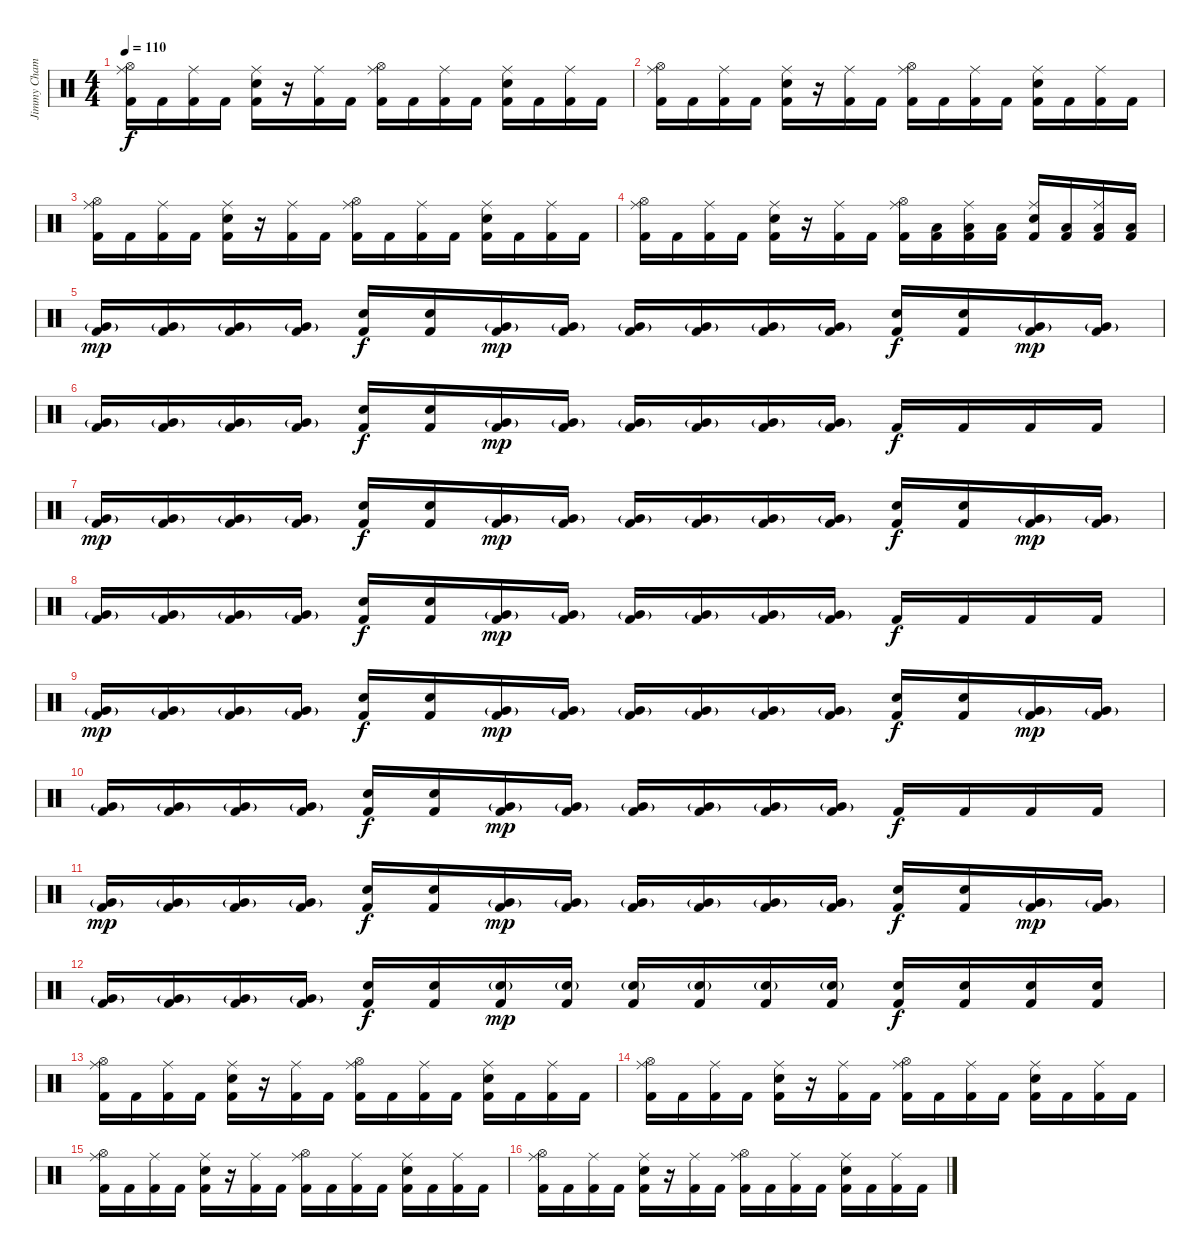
\track ("Jimmy Chamberlin" "Jimmy Cham") {instrument percussion}
\staff {score}
\articulation defaults
\ts (4 4)
\tempo 110
\clef neutral
\ks c
("Kick (hit) 2" "Hi-Hat (open)" "Ride (middle)").16{dy f} "Kick (hit) 2".16 ("Kick (hit) 2" "Ride (middle)").16 "Kick (hit) 2".16 ("Kick (hit) 2" "Snare (hit) 2" "Ride (middle)").16 r.16 ("Kick (hit) 2" "Ride (middle)").16 "Kick (hit) 2".16 ("Kick (hit) 2" "Hi-Hat (open)" "Ride (middle)").16 "Kick (hit) 2".16 ("Kick (hit) 2" "Ride (middle)").16 "Kick (hit) 2".16 ("Kick (hit) 2" "Snare (hit) 2" "Ride (middle)").16 "Kick (hit) 2".16 ("Kick (hit) 2" "Ride (middle)").16 "Kick (hit) 2".16 |
("Kick (hit) 2" "Hi-Hat (open)" "Ride (middle)").16 "Kick (hit) 2".16 ("Kick (hit) 2" "Ride (middle)").16 "Kick (hit) 2".16 ("Kick (hit) 2" "Snare (hit) 2" "Ride (middle)").16 r.16 ("Kick (hit) 2" "Ride (middle)").16 "Kick (hit) 2".16 ("Kick (hit) 2" "Hi-Hat (open)" "Ride (middle)").16 "Kick (hit) 2".16 ("Kick (hit) 2" "Ride (middle)").16 "Kick (hit) 2".16 ("Kick (hit) 2" "Snare (hit) 2" "Ride (middle)").16 "Kick (hit) 2".16 ("Kick (hit) 2" "Ride (middle)").16 "Kick (hit) 2".16 |
("Kick (hit) 2" "Hi-Hat (open)" "Ride (middle)").16 "Kick (hit) 2".16 ("Kick (hit) 2" "Ride (middle)").16 "Kick (hit) 2".16 ("Kick (hit) 2" "Snare (hit) 2" "Ride (middle)").16 r.16 ("Kick (hit) 2" "Ride (middle)").16 "Kick (hit) 2".16 ("Kick (hit) 2" "Hi-Hat (open)" "Ride (middle)").16 "Kick (hit) 2".16 ("Kick (hit) 2" "Ride (middle)").16 "Kick (hit) 2".16 ("Kick (hit) 2" "Snare (hit) 2" "Ride (middle)").16 "Kick (hit) 2".16 ("Kick (hit) 2" "Ride (middle)").16 "Kick (hit) 2".16 |
("Kick (hit) 2" "Hi-Hat (open)" "Ride (middle)").16 "Kick (hit) 2".16 ("Kick (hit) 2" "Ride (middle)").16 "Kick (hit) 2".16 ("Kick (hit) 2" "Snare (hit) 2" "Ride (middle)").16 r.16 ("Kick (hit) 2" "Ride (middle)").16 "Kick (hit) 2".16 ("Kick (hit) 2" "Hi-Hat (open)" "Ride (middle)").16 ("Kick (hit) 2" "Low Floor Tom (hit)").16 ("Kick (hit) 2" "Low Floor Tom (hit)" "Ride (middle)").16 ("Kick (hit) 2" "Low Floor Tom (hit)").16 ("Kick (hit) 2" "Snare (hit) 2" "Ride (middle)").16 ("Kick (hit) 2" "Low Floor Tom (hit)").16 ("Kick (hit) 2" "Low Floor Tom (hit)" "Ride (middle)").16 ("Kick (hit) 2" "Low Floor Tom (hit)").16 |
("Kick (hit) 2" "Very Low Tom (hit)"{g}).16{dy mp} ("Kick (hit) 2" "Very Low Tom (hit)"{g}).16 ("Kick (hit) 2" "Very Low Tom (hit)"{g}).16 ("Kick (hit) 2" "Very Low Tom (hit)"{g}).16 ("Kick (hit) 2" "Snare (hit) 2").16{dy f} ("Kick (hit) 2" "Snare (hit) 2").16 ("Kick (hit) 2" "Very Low Tom (hit)"{g}).16{dy mp} ("Kick (hit) 2" "Very Low Tom (hit)"{g}).16 ("Kick (hit) 2" "Very Low Tom (hit)"{g}).16 ("Kick (hit) 2" "Very Low Tom (hit)"{g}).16 ("Kick (hit) 2" "Very Low Tom (hit)"{g}).16 ("Kick (hit) 2" "Very Low Tom (hit)"{g}).16 ("Kick (hit) 2" "Snare (hit) 2").16{dy f} ("Kick (hit) 2" "Snare (hit) 2").16 ("Kick (hit) 2" "Very Low Tom (hit)"{g}).16{dy mp} ("Kick (hit) 2" "Very Low Tom (hit)"{g}).16 |
("Kick (hit) 2" "Very Low Tom (hit)"{g}).16 ("Kick (hit) 2" "Very Low Tom (hit)"{g}).16 ("Kick (hit) 2" "Very Low Tom (hit)"{g}).16 ("Kick (hit) 2" "Very Low Tom (hit)"{g}).16 ("Kick (hit) 2" "Snare (hit) 2").16{dy f} ("Kick (hit) 2" "Snare (hit) 2").16 ("Kick (hit) 2" "Very Low Tom (hit)"{g}).16{dy mp} ("Kick (hit) 2" "Very Low Tom (hit)"{g}).16 ("Kick (hit) 2" "Very Low Tom (hit)"{g}).16 ("Kick (hit) 2" "Very Low Tom (hit)"{g}).16 ("Kick (hit) 2" "Very Low Tom (hit)"{g}).16 ("Kick (hit) 2" "Very Low Tom (hit)"{g}).16 "Kick (hit) 2".16{dy f} "Kick (hit) 2".16 "Kick (hit) 2".16 "Kick (hit) 2".16 |
("Kick (hit) 2" "Very Low Tom (hit)"{g}).16{dy mp} ("Kick (hit) 2" "Very Low Tom (hit)"{g}).16 ("Kick (hit) 2" "Very Low Tom (hit)"{g}).16 ("Kick (hit) 2" "Very Low Tom (hit)"{g}).16 ("Kick (hit) 2" "Snare (hit) 2").16{dy f} ("Kick (hit) 2" "Snare (hit) 2").16 ("Kick (hit) 2" "Very Low Tom (hit)"{g}).16{dy mp} ("Kick (hit) 2" "Very Low Tom (hit)"{g}).16 ("Kick (hit) 2" "Very Low Tom (hit)"{g}).16 ("Kick (hit) 2" "Very Low Tom (hit)"{g}).16 ("Kick (hit) 2" "Very Low Tom (hit)"{g}).16 ("Kick (hit) 2" "Very Low Tom (hit)"{g}).16 ("Kick (hit) 2" "Snare (hit) 2").16{dy f} ("Kick (hit) 2" "Snare (hit) 2").16 ("Kick (hit) 2" "Very Low Tom (hit)"{g}).16{dy mp} ("Kick (hit) 2" "Very Low Tom (hit)"{g}).16 |
("Kick (hit) 2" "Very Low Tom (hit)"{g}).16 ("Kick (hit) 2" "Very Low Tom (hit)"{g}).16 ("Kick (hit) 2" "Very Low Tom (hit)"{g}).16 ("Kick (hit) 2" "Very Low Tom (hit)"{g}).16 ("Kick (hit) 2" "Snare (hit) 2").16{dy f} ("Kick (hit) 2" "Snare (hit) 2").16 ("Kick (hit) 2" "Very Low Tom (hit)"{g}).16{dy mp} ("Kick (hit) 2" "Very Low Tom (hit)"{g}).16 ("Kick (hit) 2" "Very Low Tom (hit)"{g}).16 ("Kick (hit) 2" "Very Low Tom (hit)"{g}).16 ("Kick (hit) 2" "Very Low Tom (hit)"{g}).16 ("Kick (hit) 2" "Very Low Tom (hit)"{g}).16 "Kick (hit) 2".16{dy f} "Kick (hit) 2".16 "Kick (hit) 2".16 "Kick (hit) 2".16 |
("Kick (hit) 2" "Very Low Tom (hit)"{g}).16{dy mp} ("Kick (hit) 2" "Very Low Tom (hit)"{g}).16 ("Kick (hit) 2" "Very Low Tom (hit)"{g}).16 ("Kick (hit) 2" "Very Low Tom (hit)"{g}).16 ("Kick (hit) 2" "Snare (hit) 2").16{dy f} ("Kick (hit) 2" "Snare (hit) 2").16 ("Kick (hit) 2" "Very Low Tom (hit)"{g}).16{dy mp} ("Kick (hit) 2" "Very Low Tom (hit)"{g}).16 ("Kick (hit) 2" "Very Low Tom (hit)"{g}).16 ("Kick (hit) 2" "Very Low Tom (hit)"{g}).16 ("Kick (hit) 2" "Very Low Tom (hit)"{g}).16 ("Kick (hit) 2" "Very Low Tom (hit)"{g}).16 ("Kick (hit) 2" "Snare (hit) 2").16{dy f} ("Kick (hit) 2" "Snare (hit) 2").16 ("Kick (hit) 2" "Very Low Tom (hit)"{g}).16{dy mp} ("Kick (hit) 2" "Very Low Tom (hit)"{g}).16 |
("Kick (hit) 2" "Very Low Tom (hit)"{g}).16 ("Kick (hit) 2" "Very Low Tom (hit)"{g}).16 ("Kick (hit) 2" "Very Low Tom (hit)"{g}).16 ("Kick (hit) 2" "Very Low Tom (hit)"{g}).16 ("Kick (hit) 2" "Snare (hit) 2").16{dy f} ("Kick (hit) 2" "Snare (hit) 2").16 ("Kick (hit) 2" "Very Low Tom (hit)"{g}).16{dy mp} ("Kick (hit) 2" "Very Low Tom (hit)"{g}).16 ("Kick (hit) 2" "Very Low Tom (hit)"{g}).16 ("Kick (hit) 2" "Very Low Tom (hit)"{g}).16 ("Kick (hit) 2" "Very Low Tom (hit)"{g}).16 ("Kick (hit) 2" "Very Low Tom (hit)"{g}).16 "Kick (hit) 2".16{dy f} "Kick (hit) 2".16 "Kick (hit) 2".16 "Kick (hit) 2".16 |
("Kick (hit) 2" "Very Low Tom (hit)"{g}).16{dy mp} ("Kick (hit) 2" "Very Low Tom (hit)"{g}).16 ("Kick (hit) 2" "Very Low Tom (hit)"{g}).16 ("Kick (hit) 2" "Very Low Tom (hit)"{g}).16 ("Kick (hit) 2" "Snare (hit) 2").16{dy f} ("Kick (hit) 2" "Snare (hit) 2").16 ("Kick (hit) 2" "Very Low Tom (hit)"{g}).16{dy mp} ("Kick (hit) 2" "Very Low Tom (hit)"{g}).16 ("Kick (hit) 2" "Very Low Tom (hit)"{g}).16 ("Kick (hit) 2" "Very Low Tom (hit)"{g}).16 ("Kick (hit) 2" "Very Low Tom (hit)"{g}).16 ("Kick (hit) 2" "Very Low Tom (hit)"{g}).16 ("Kick (hit) 2" "Snare (hit) 2").16{dy f} ("Kick (hit) 2" "Snare (hit) 2").16 ("Kick (hit) 2" "Very Low Tom (hit)"{g}).16{dy mp} ("Kick (hit) 2" "Very Low Tom (hit)"{g}).16 |
("Kick (hit) 2" "Very Low Tom (hit)"{g}).16 ("Kick (hit) 2" "Very Low Tom (hit)"{g}).16 ("Kick (hit) 2" "Very Low Tom (hit)"{g}).16 ("Kick (hit) 2" "Very Low Tom (hit)"{g}).16 ("Kick (hit) 2" "Snare (hit) 2").16{dy f} ("Kick (hit) 2" "Snare (hit) 2").16 ("Kick (hit) 2" "Snare (hit) 2"{g}).16{dy mp} ("Kick (hit) 2" "Snare (hit) 2"{g}).16 ("Kick (hit) 2" "Snare (hit) 2"{g}).16 ("Kick (hit) 2" "Snare (hit) 2"{g}).16 ("Kick (hit) 2" "Snare (hit) 2"{g}).16 ("Kick (hit) 2" "Snare (hit) 2"{g}).16 ("Kick (hit) 2" "Snare (hit) 2").16{dy f} ("Kick (hit) 2" "Snare (hit) 2").16 ("Kick (hit) 2" "Snare (hit) 2").16 ("Kick (hit) 2" "Snare (hit) 2").16 |
("Kick (hit) 2" "Hi-Hat (open)" "Ride (middle)").16 "Kick (hit) 2".16 ("Kick (hit) 2" "Ride (middle)").16 "Kick (hit) 2".16 ("Kick (hit) 2" "Snare (hit) 2" "Ride (middle)").16 r.16 ("Kick (hit) 2" "Ride (middle)").16 "Kick (hit) 2".16 ("Kick (hit) 2" "Hi-Hat (open)" "Ride (middle)").16 "Kick (hit) 2".16 ("Kick (hit) 2" "Ride (middle)").16 "Kick (hit) 2".16 ("Kick (hit) 2" "Snare (hit) 2" "Ride (middle)").16 "Kick (hit) 2".16 ("Kick (hit) 2" "Ride (middle)").16 "Kick (hit) 2".16 |
("Kick (hit) 2" "Hi-Hat (open)" "Ride (middle)").16 "Kick (hit) 2".16 ("Kick (hit) 2" "Ride (middle)").16 "Kick (hit) 2".16 ("Kick (hit) 2" "Snare (hit) 2" "Ride (middle)").16 r.16 ("Kick (hit) 2" "Ride (middle)").16 "Kick (hit) 2".16 ("Kick (hit) 2" "Hi-Hat (open)" "Ride (middle)").16 "Kick (hit) 2".16 ("Kick (hit) 2" "Ride (middle)").16 "Kick (hit) 2".16 ("Kick (hit) 2" "Snare (hit) 2" "Ride (middle)").16 "Kick (hit) 2".16 ("Kick (hit) 2" "Ride (middle)").16 "Kick (hit) 2".16 |
("Kick (hit) 2" "Hi-Hat (open)" "Ride (middle)").16 "Kick (hit) 2".16 ("Kick (hit) 2" "Ride (middle)").16 "Kick (hit) 2".16 ("Kick (hit) 2" "Snare (hit) 2" "Ride (middle)").16 r.16 ("Kick (hit) 2" "Ride (middle)").16 "Kick (hit) 2".16 ("Kick (hit) 2" "Hi-Hat (open)" "Ride (middle)").16 "Kick (hit) 2".16 ("Kick (hit) 2" "Ride (middle)").16 "Kick (hit) 2".16 ("Kick (hit) 2" "Snare (hit) 2" "Ride (middle)").16 "Kick (hit) 2".16 ("Kick (hit) 2" "Ride (middle)").16 "Kick (hit) 2".16 |
("Kick (hit) 2" "Hi-Hat (open)" "Ride (middle)").16 "Kick (hit) 2".16 ("Kick (hit) 2" "Ride (middle)").16 "Kick (hit) 2".16 ("Kick (hit) 2" "Snare (hit) 2" "Ride (middle)").16 r.16 ("Kick (hit) 2" "Ride (middle)").16 "Kick (hit) 2".16 ("Kick (hit) 2" "Hi-Hat (open)" "Ride (middle)").16 "Kick (hit) 2".16 ("Kick (hit) 2" "Ride (middle)").16 "Kick (hit) 2".16 ("Kick (hit) 2" "Snare (hit) 2" "Ride (middle)").16 "Kick (hit) 2".16 ("Kick (hit) 2" "Ride (middle)").16 "Kick (hit) 2".16
